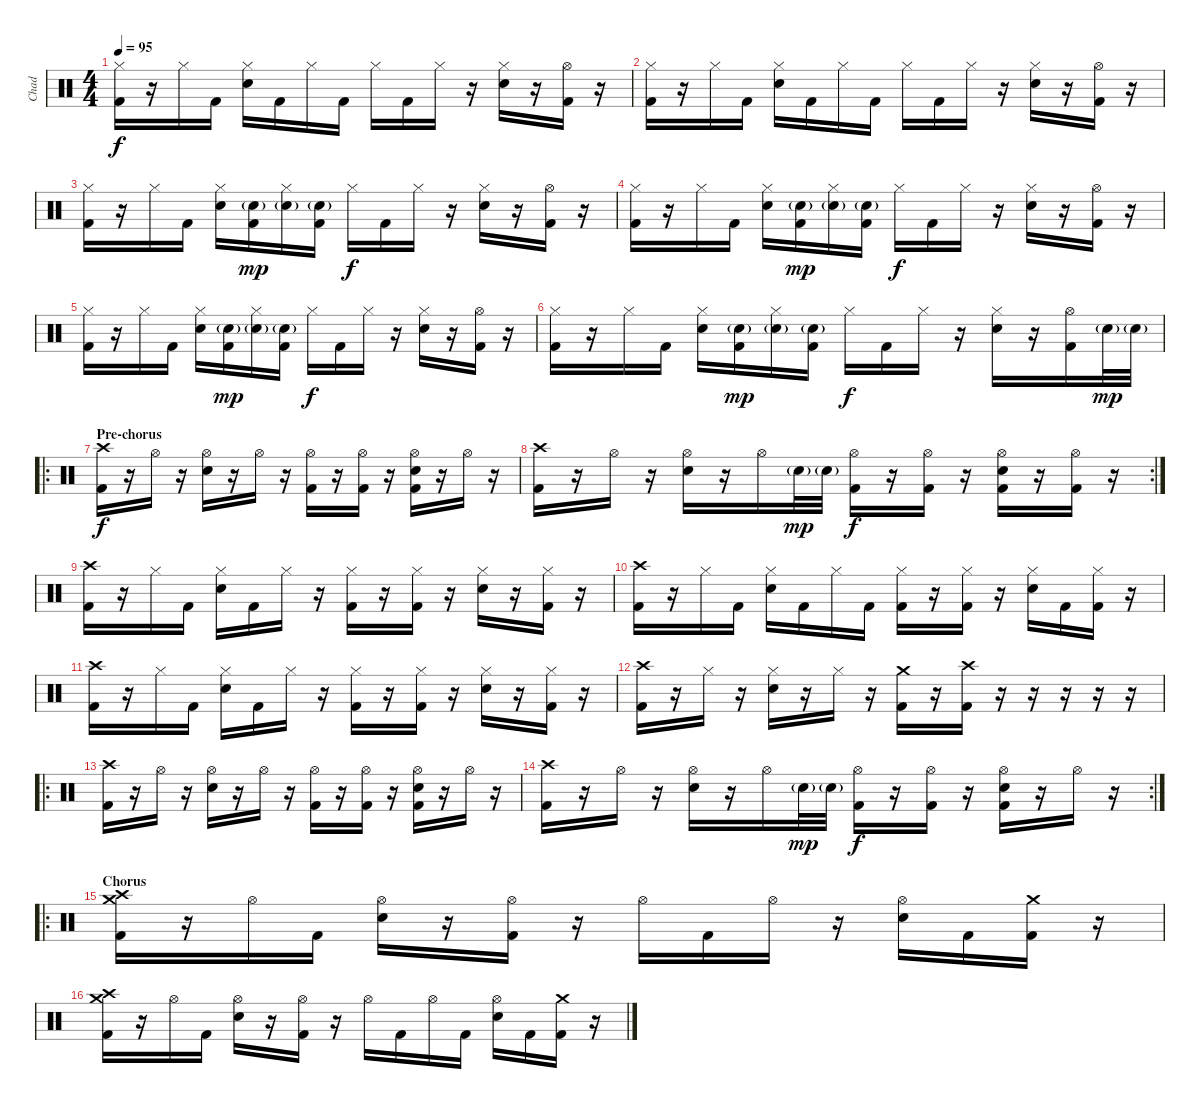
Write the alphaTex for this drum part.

\track ("Chad" "Chad") {instrument percussion}
\staff {score}
\articulation defaults
\ts (4 4)
\tempo 95
\clef neutral
\ks c
("Kick (hit) 2" "Hi-Hat (closed)").16{dy f} r.16 "Hi-Hat (closed)".16 "Kick (hit) 2".16 ("Electric Snare (hit)" "Hi-Hat (closed)").16 "Kick (hit) 2".16 "Hi-Hat (closed)".16 "Kick (hit) 2".16 "Hi-Hat (closed)".16 "Kick (hit) 2".16 "Hi-Hat (closed)".16 r.16 ("Electric Snare (hit)" "Hi-Hat (closed)").16 r.16 ("Kick (hit) 2" "Hi-Hat (open)").16 r.16 |
("Kick (hit) 2" "Hi-Hat (closed)").16 r.16 "Hi-Hat (closed)".16 "Kick (hit) 2".16 ("Electric Snare (hit)" "Hi-Hat (closed)").16 "Kick (hit) 2".16 "Hi-Hat (closed)".16 "Kick (hit) 2".16 "Hi-Hat (closed)".16 "Kick (hit) 2".16 "Hi-Hat (closed)".16 r.16 ("Electric Snare (hit)" "Hi-Hat (closed)").16 r.16 ("Kick (hit) 2" "Hi-Hat (open)").16 r.16 |
("Kick (hit) 2" "Hi-Hat (closed)").16 r.16 "Hi-Hat (closed)".16 "Kick (hit) 2".16 ("Electric Snare (hit)" "Hi-Hat (closed)").16 ("Kick (hit) 2" "Electric Snare (hit)"{g}).16{dy mp} ("Electric Snare (hit)"{g} "Hi-Hat (closed)").16 ("Kick (hit) 2" "Electric Snare (hit)"{g}).16 "Hi-Hat (closed)".16{dy f} "Kick (hit) 2".16 "Hi-Hat (closed)".16 r.16 ("Electric Snare (hit)" "Hi-Hat (closed)").16 r.16 ("Kick (hit) 2" "Hi-Hat (open)").16 r.16 |
("Kick (hit) 2" "Hi-Hat (closed)").16 r.16 "Hi-Hat (closed)".16 "Kick (hit) 2".16 ("Electric Snare (hit)" "Hi-Hat (closed)").16 ("Kick (hit) 2" "Electric Snare (hit)"{g}).16{dy mp} ("Electric Snare (hit)"{g} "Hi-Hat (closed)").16 ("Kick (hit) 2" "Electric Snare (hit)"{g}).16 "Hi-Hat (closed)".16{dy f} "Kick (hit) 2".16 "Hi-Hat (closed)".16 r.16 ("Electric Snare (hit)" "Hi-Hat (closed)").16 r.16 ("Kick (hit) 2" "Hi-Hat (open)").16 r.16 |
("Kick (hit) 2" "Hi-Hat (closed)").16 r.16 "Hi-Hat (closed)".16 "Kick (hit) 2".16 ("Electric Snare (hit)" "Hi-Hat (closed)").16 ("Kick (hit) 2" "Electric Snare (hit)"{g}).16{dy mp} ("Electric Snare (hit)"{g} "Hi-Hat (closed)").16 ("Kick (hit) 2" "Electric Snare (hit)"{g}).16 "Hi-Hat (closed)".16{dy f} "Kick (hit) 2".16 "Hi-Hat (closed)".16 r.16 ("Electric Snare (hit)" "Hi-Hat (closed)").16 r.16 ("Kick (hit) 2" "Hi-Hat (open)").16 r.16 |
("Kick (hit) 2" "Hi-Hat (closed)").16 r.16 "Hi-Hat (closed)".16 "Kick (hit) 2".16 ("Electric Snare (hit)" "Hi-Hat (closed)").16 ("Kick (hit) 2" "Electric Snare (hit)"{g}).16{dy mp} ("Electric Snare (hit)"{g} "Hi-Hat (closed)").16 ("Kick (hit) 2" "Electric Snare (hit)"{g}).16 "Hi-Hat (closed)".16{dy f} "Kick (hit) 2".16 "Hi-Hat (closed)".16 r.16 ("Electric Snare (hit)" "Hi-Hat (closed)").16 r.16 ("Kick (hit) 2" "Hi-Hat (open)").16 "Electric Snare (hit)"{g}.32{dy mp} "Electric Snare (hit)"{g}.32 |
\ro
\section ("" "Pre-chorus")
("Kick (hit) 2" "Crash high (hit)").16{dy f} r.16 "Hi-Hat (open)".16 r.16 ("Electric Snare (hit)" "Hi-Hat (open)").16 r.16 "Hi-Hat (open)".16 r.16 ("Kick (hit) 2" "Hi-Hat (open)").16 r.16 ("Kick (hit) 2" "Hi-Hat (open)").16 r.16 ("Kick (hit) 2" "Electric Snare (hit)" "Hi-Hat (open)").16 r.16 "Hi-Hat (open)".16 r.16 |
\rc 2
("Kick (hit) 2" "Crash high (hit)").16 r.16 "Hi-Hat (open)".16 r.16 ("Electric Snare (hit)" "Hi-Hat (open)").16 r.16 "Hi-Hat (open)".16 "Electric Snare (hit)"{g}.32{dy mp} "Electric Snare (hit)"{g}.32 ("Kick (hit) 2" "Hi-Hat (open)").16{dy f} r.16 ("Kick (hit) 2" "Hi-Hat (open)").16 r.16 ("Kick (hit) 2" "Electric Snare (hit)" "Hi-Hat (open)").16 r.16 ("Kick (hit) 2" "Hi-Hat (open)").16 r.16 |
("Kick (hit) 2" "Crash high (hit)").16 r.16 "Hi-Hat (closed)".16 "Kick (hit) 2".16 ("Electric Snare (hit)" "Hi-Hat (closed)").16 "Kick (hit) 2".16 "Hi-Hat (closed)".16 r.16 ("Kick (hit) 2" "Hi-Hat (closed)").16 r.16 ("Kick (hit) 2" "Hi-Hat (closed)").16 r.16 ("Electric Snare (hit)" "Hi-Hat (closed)").16 r.16 ("Kick (hit) 2" "Hi-Hat (closed)").16 r.16 |
("Kick (hit) 2" "Crash high (hit)").16 r.16 "Hi-Hat (closed)".16 "Kick (hit) 2".16 ("Electric Snare (hit)" "Hi-Hat (closed)").16 "Kick (hit) 2".16 "Hi-Hat (closed)".16 "Kick (hit) 2".16 ("Kick (hit) 2" "Hi-Hat (closed)").16 r.16 ("Kick (hit) 2" "Hi-Hat (closed)").16 r.16 ("Electric Snare (hit)" "Hi-Hat (closed)").16 "Kick (hit) 2".16 ("Kick (hit) 2" "Hi-Hat (closed)").16 r.16 |
("Kick (hit) 2" "Crash high (hit)").16 r.16 "Hi-Hat (closed)".16 "Kick (hit) 2".16 ("Electric Snare (hit)" "Hi-Hat (closed)").16 "Kick (hit) 2".16 "Hi-Hat (closed)".16 r.16 ("Kick (hit) 2" "Hi-Hat (closed)").16 r.16 ("Kick (hit) 2" "Hi-Hat (closed)").16 r.16 ("Electric Snare (hit)" "Hi-Hat (closed)").16 r.16 ("Kick (hit) 2" "Hi-Hat (closed)").16 r.16 |
("Kick (hit) 2" "Crash high (hit)").16 r.16 "Hi-Hat (closed)".16 r.16 ("Electric Snare (hit)" "Hi-Hat (closed)").16 r.16 "Hi-Hat (closed)".16 r.16 ("Kick (hit) 2" "Crash medium (hit)").16 r.16 ("Kick (hit) 2" "Crash high (hit)").16 r.16 r.16 r.16 r.16 r.16 |
\ro
("Kick (hit) 2" "Crash high (hit)").16 r.16 "Hi-Hat (open)".16 r.16 ("Electric Snare (hit)" "Hi-Hat (open)").16 r.16 "Hi-Hat (open)".16 r.16 ("Kick (hit) 2" "Hi-Hat (open)").16 r.16 ("Kick (hit) 2" "Hi-Hat (open)").16 r.16 ("Kick (hit) 2" "Electric Snare (hit)" "Hi-Hat (open)").16 r.16 "Hi-Hat (open)".16 r.16 |
\rc 2
("Kick (hit) 2" "Crash high (hit)").16 r.16 "Hi-Hat (open)".16 r.16 ("Electric Snare (hit)" "Hi-Hat (open)").16 r.16 "Hi-Hat (open)".16 "Electric Snare (hit)"{g}.32{dy mp} "Electric Snare (hit)"{g}.32 ("Kick (hit) 2" "Hi-Hat (open)").16{dy f} r.16 ("Kick (hit) 2" "Hi-Hat (open)").16 r.16 ("Kick (hit) 2" "Electric Snare (hit)" "Hi-Hat (open)").16 r.16 "Hi-Hat (open)".16 r.16 |
\ro
\section ("" "Chorus")
("Kick (hit) 2" "Crash high (hit)" "Crash medium (hit)").16 r.16 "Hi-Hat (open)".16 "Kick (hit) 2".16 ("Electric Snare (hit)" "Hi-Hat (open)").16 r.16 ("Kick (hit) 2" "Hi-Hat (open)").16 r.16 "Hi-Hat (open)".16 "Kick (hit) 2".16 "Hi-Hat (open)".16 r.16 ("Electric Snare (hit)" "Hi-Hat (open)").16 "Kick (hit) 2".16 ("Kick (hit) 2" "Crash medium (hit)").16 r.16 |
("Kick (hit) 2" "Crash high (hit)" "Crash medium (hit)").16 r.16 "Hi-Hat (open)".16 "Kick (hit) 2".16 ("Electric Snare (hit)" "Hi-Hat (open)").16 r.16 ("Kick (hit) 2" "Hi-Hat (open)").16 r.16 "Hi-Hat (open)".16 "Kick (hit) 2".16 "Hi-Hat (open)".16 "Kick (hit) 2".16 ("Electric Snare (hit)" "Hi-Hat (open)").16 "Kick (hit) 2".16 ("Kick (hit) 2" "Crash medium (hit)").16 r.16
